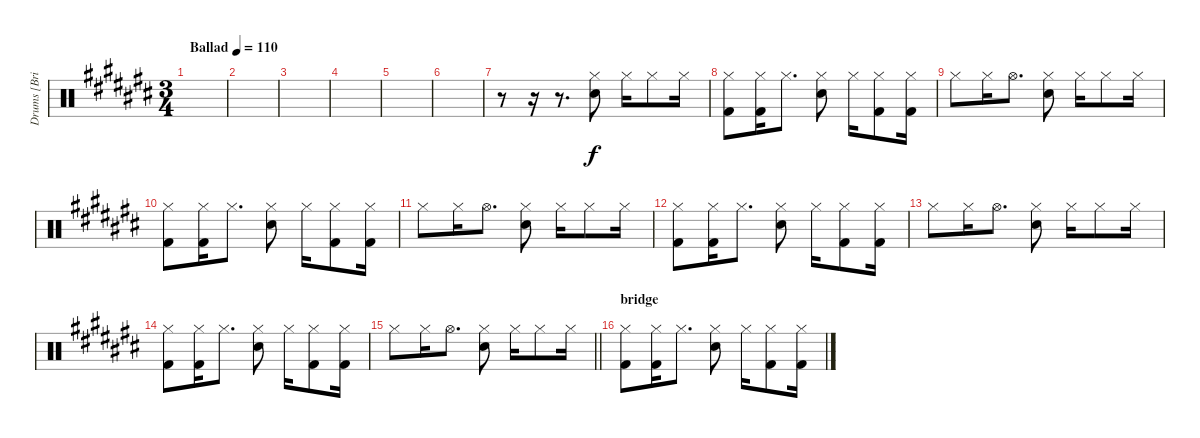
\track ("Drums [Brian \"Brain\" Mantia]" "Drums [Bri") {instrument percussion}
\staff {score}
\articulation defaults
\ts (3 4)
\tempo (110 "Ballad")
\clef neutral
\ks c#
|
|
|
|
|
|
r.8 r.16 r.8{d} ("Hi-Hat (closed)" "Electric Snare (hit)").8 "Hi-Hat (closed)".16 "Hi-Hat (closed)".8 "Hi-Hat (closed)".16 |
("Hi-Hat (closed)" "Kick (hit) 2").8 ("Hi-Hat (closed)" "Kick (hit) 2").16 "Hi-Hat (closed)".8{d} ("Hi-Hat (closed)" "Electric Snare (hit)").8 "Hi-Hat (closed)".16 ("Hi-Hat (closed)" "Kick (hit) 2").8 ("Hi-Hat (closed)" "Kick (hit) 2").16 |
"Hi-Hat (closed)".8 "Hi-Hat (closed)".16 "Hi-Hat (open)".8{d} ("Hi-Hat (closed)" "Electric Snare (hit)").8 "Hi-Hat (closed)".16 "Hi-Hat (closed)".8 "Hi-Hat (closed)".16 |
("Hi-Hat (closed)" "Kick (hit) 2").8 ("Hi-Hat (closed)" "Kick (hit) 2").16 "Hi-Hat (closed)".8{d} ("Hi-Hat (closed)" "Electric Snare (hit)").8 "Hi-Hat (closed)".16 ("Hi-Hat (closed)" "Kick (hit) 2").8 ("Hi-Hat (closed)" "Kick (hit) 2").16 |
"Hi-Hat (closed)".8 "Hi-Hat (closed)".16 "Hi-Hat (open)".8{d} ("Hi-Hat (closed)" "Electric Snare (hit)").8 "Hi-Hat (closed)".16 "Hi-Hat (closed)".8 "Hi-Hat (closed)".16 |
("Hi-Hat (closed)" "Kick (hit) 2").8 ("Hi-Hat (closed)" "Kick (hit) 2").16 "Hi-Hat (closed)".8{d} ("Hi-Hat (closed)" "Electric Snare (hit)").8 "Hi-Hat (closed)".16 ("Hi-Hat (closed)" "Kick (hit) 2").8 ("Hi-Hat (closed)" "Kick (hit) 2").16 |
"Hi-Hat (closed)".8 "Hi-Hat (closed)".16 "Hi-Hat (open)".8{d} ("Hi-Hat (closed)" "Electric Snare (hit)").8 "Hi-Hat (closed)".16 "Hi-Hat (closed)".8 "Hi-Hat (closed)".16 |
("Hi-Hat (closed)" "Kick (hit) 2").8 ("Hi-Hat (closed)" "Kick (hit) 2").16 "Hi-Hat (closed)".8{d} ("Hi-Hat (closed)" "Electric Snare (hit)").8 "Hi-Hat (closed)".16 ("Hi-Hat (closed)" "Kick (hit) 2").8 ("Hi-Hat (closed)" "Kick (hit) 2").16 |
\barLineRight lightlight "Hi-Hat (closed)".8 "Hi-Hat (closed)".16 "Hi-Hat (open)".8{d}
("Hi-Hat (closed)" "Electric Snare (hit)").8 "Hi-Hat (closed)".16 "Hi-Hat (closed)".8 "Hi-Hat (closed)".16 |
\section ("" "bridge")
("Hi-Hat (closed)" "Kick (hit) 2").8 ("Hi-Hat (closed)" "Kick (hit) 2").16 "Hi-Hat (closed)".8{d} ("Hi-Hat (closed)" "Electric Snare (hit)").8 "Hi-Hat (closed)".16 ("Hi-Hat (closed)" "Kick (hit) 2").8 ("Hi-Hat (closed)" "Kick (hit) 2").16
